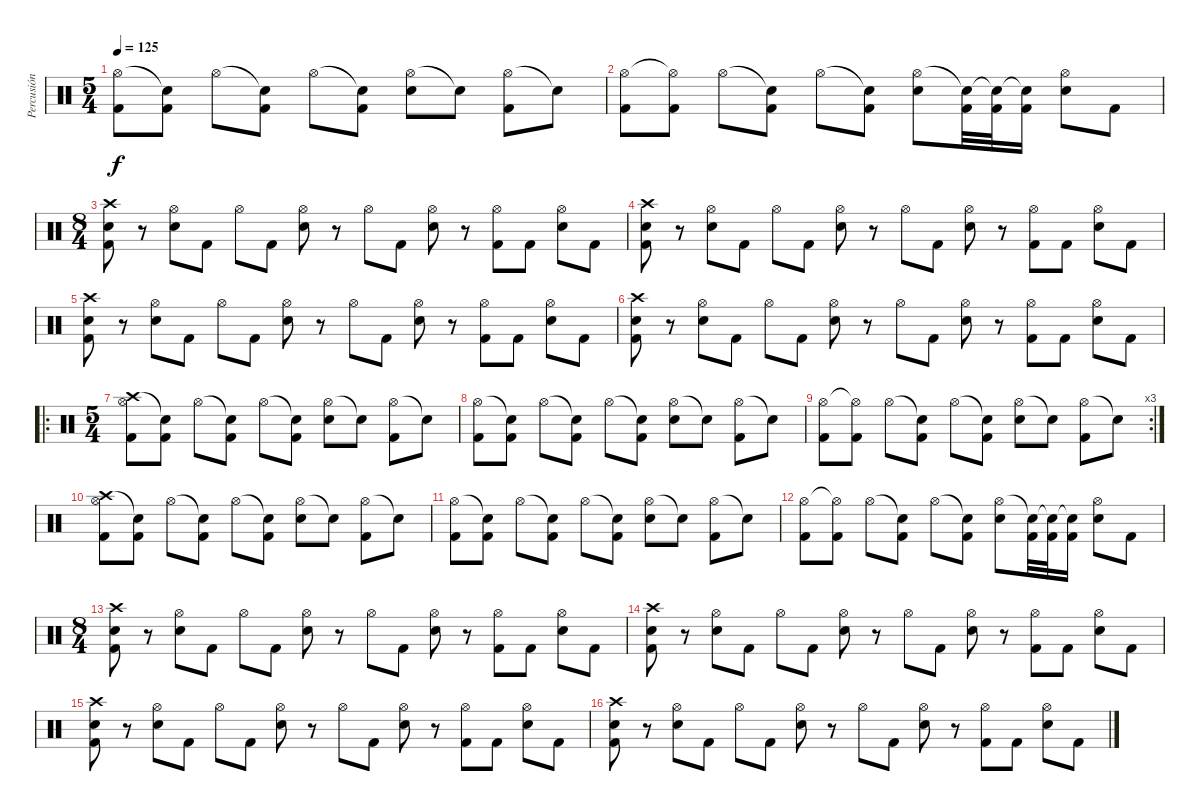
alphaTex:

\track ("Percusión" "Percusión") {instrument percussion}
\staff {score}
\articulation defaults
\ts (5 4)
\tempo 125
\clef neutral
\ks c
("Hi-Hat (open)" "Kick (hit) 2").8{dy f} ("Snare (hit)"{t} "Kick (hit) 2").8 "Hi-Hat (open)".8 ("Snare (hit)"{t} "Kick (hit) 2").8 "Hi-Hat (open)".8 ("Snare (hit)"{t} "Kick (hit) 2").8 ("Hi-Hat (open)" "Electric Snare (hit)").8 "Snare (hit)"{t}.8 ("Hi-Hat (open)" "Kick (hit) 2").8 "Snare (hit)"{t}.8 |
("Hi-Hat (open)" "Kick (hit) 2").8 ("Hi-Hat (open)"{t} "Kick (hit) 2").8 "Hi-Hat (open)".8 ("Snare (hit)"{t} "Kick (hit) 2").8 "Hi-Hat (open)".8 ("Snare (hit)"{t} "Kick (hit) 2").8 ("Hi-Hat (open)" "Electric Snare (hit)").8 ("Snare (hit)"{t} "Kick (hit) 2").32 ("Snare (hit)"{t} "Kick (hit) 2").32 ("Snare (hit)"{t} "Kick (hit) 2").16 ("Hi-Hat (open)" "Electric Snare (hit)").8 "Kick (hit) 2".8 |
\ts (8 4)
("Crash high (hit)" "Electric Snare (hit)" "Kick (hit) 2").8 r.8 ("Hi-Hat (open)" "Electric Snare (hit)").8 "Kick (hit) 2".8 "Hi-Hat (open)".8 "Kick (hit) 2".8 ("Hi-Hat (open)" "Electric Snare (hit)").8 r.8 "Hi-Hat (open)".8 "Kick (hit) 2".8 ("Hi-Hat (open)" "Electric Snare (hit)").8 r.8 ("Hi-Hat (open)" "Kick (hit) 2").8 "Kick (hit) 2".8 ("Hi-Hat (open)" "Electric Snare (hit)").8 "Kick (hit) 2".8 |
("Crash high (hit)" "Electric Snare (hit)" "Kick (hit) 2").8 r.8 ("Hi-Hat (open)" "Electric Snare (hit)").8 "Kick (hit) 2".8 "Hi-Hat (open)".8 "Kick (hit) 2".8 ("Hi-Hat (open)" "Electric Snare (hit)").8 r.8 "Hi-Hat (open)".8 "Kick (hit) 2".8 ("Hi-Hat (open)" "Electric Snare (hit)").8 r.8 ("Hi-Hat (open)" "Kick (hit) 2").8 "Kick (hit) 2".8 ("Hi-Hat (open)" "Electric Snare (hit)").8 "Kick (hit) 2".8 |
("Crash high (hit)" "Electric Snare (hit)" "Kick (hit) 2").8 r.8 ("Hi-Hat (open)" "Electric Snare (hit)").8 "Kick (hit) 2".8 "Hi-Hat (open)".8 "Kick (hit) 2".8 ("Hi-Hat (open)" "Electric Snare (hit)").8 r.8 "Hi-Hat (open)".8 "Kick (hit) 2".8 ("Hi-Hat (open)" "Electric Snare (hit)").8 r.8 ("Hi-Hat (open)" "Kick (hit) 2").8 "Kick (hit) 2".8 ("Hi-Hat (open)" "Electric Snare (hit)").8 "Kick (hit) 2".8 |
("Crash high (hit)" "Electric Snare (hit)" "Kick (hit) 2").8 r.8 ("Hi-Hat (open)" "Electric Snare (hit)").8 "Kick (hit) 2".8 "Hi-Hat (open)".8 "Kick (hit) 2".8 ("Hi-Hat (open)" "Electric Snare (hit)").8 r.8 "Hi-Hat (open)".8 "Kick (hit) 2".8 ("Hi-Hat (open)" "Electric Snare (hit)").8 r.8 ("Hi-Hat (open)" "Kick (hit) 2").8 "Kick (hit) 2".8 ("Hi-Hat (open)" "Electric Snare (hit)").8 "Kick (hit) 2".8 |
\ro
\ts (5 4)
("Crash high (hit)" "Hi-Hat (open)" "Kick (hit) 2").8 ("Snare (hit)"{t} "Kick (hit) 2").8 "Hi-Hat (open)".8 ("Snare (hit)"{t} "Kick (hit) 2").8 "Hi-Hat (open)".8 ("Snare (hit)"{t} "Kick (hit) 2").8 ("Hi-Hat (open)" "Electric Snare (hit)").8 "Snare (hit)"{t}.8 ("Hi-Hat (open)" "Kick (hit) 2").8 "Snare (hit)"{t}.8 |
("Hi-Hat (open)" "Kick (hit) 2").8 ("Snare (hit)"{t} "Kick (hit) 2").8 "Hi-Hat (open)".8 ("Snare (hit)"{t} "Kick (hit) 2").8 "Hi-Hat (open)".8 ("Snare (hit)"{t} "Kick (hit) 2").8 ("Hi-Hat (open)" "Electric Snare (hit)").8 "Snare (hit)"{t}.8 ("Hi-Hat (open)" "Kick (hit) 2").8 "Snare (hit)"{t}.8 |
\rc 3
("Hi-Hat (open)" "Kick (hit) 2").8 ("Hi-Hat (open)"{t} "Kick (hit) 2").8 "Hi-Hat (open)".8 ("Snare (hit)"{t} "Kick (hit) 2").8 "Hi-Hat (open)".8 ("Snare (hit)"{t} "Kick (hit) 2").8 ("Hi-Hat (open)" "Electric Snare (hit)").8 "Snare (hit)"{t}.8 ("Hi-Hat (open)" "Kick (hit) 2").8 "Snare (hit)"{t}.8 |
("Crash high (hit)" "Hi-Hat (open)" "Kick (hit) 2").8 ("Snare (hit)"{t} "Kick (hit) 2").8 "Hi-Hat (open)".8 ("Snare (hit)"{t} "Kick (hit) 2").8 "Hi-Hat (open)".8 ("Snare (hit)"{t} "Kick (hit) 2").8 ("Hi-Hat (open)" "Electric Snare (hit)").8 "Snare (hit)"{t}.8 ("Hi-Hat (open)" "Kick (hit) 2").8 "Snare (hit)"{t}.8 |
("Hi-Hat (open)" "Kick (hit) 2").8 ("Snare (hit)"{t} "Kick (hit) 2").8 "Hi-Hat (open)".8 ("Snare (hit)"{t} "Kick (hit) 2").8 "Hi-Hat (open)".8 ("Snare (hit)"{t} "Kick (hit) 2").8 ("Hi-Hat (open)" "Electric Snare (hit)").8 "Snare (hit)"{t}.8 ("Hi-Hat (open)" "Kick (hit) 2").8 "Snare (hit)"{t}.8 |
("Hi-Hat (open)" "Kick (hit) 2").8 ("Hi-Hat (open)"{t} "Kick (hit) 2").8 "Hi-Hat (open)".8 ("Snare (hit)"{t} "Kick (hit) 2").8 "Hi-Hat (open)".8 ("Snare (hit)"{t} "Kick (hit) 2").8 ("Hi-Hat (open)" "Electric Snare (hit)").8 ("Snare (hit)"{t} "Kick (hit) 2").32 ("Snare (hit)"{t} "Kick (hit) 2").32 ("Snare (hit)"{t} "Kick (hit) 2").16 ("Hi-Hat (open)" "Electric Snare (hit)").8 "Kick (hit) 2".8 |
\ts (8 4)
("Crash high (hit)" "Electric Snare (hit)" "Kick (hit) 2").8 r.8 ("Hi-Hat (open)" "Electric Snare (hit)").8 "Kick (hit) 2".8 "Hi-Hat (open)".8 "Kick (hit) 2".8 ("Hi-Hat (open)" "Electric Snare (hit)").8 r.8 "Hi-Hat (open)".8 "Kick (hit) 2".8 ("Hi-Hat (open)" "Electric Snare (hit)").8 r.8 ("Hi-Hat (open)" "Kick (hit) 2").8 "Kick (hit) 2".8 ("Hi-Hat (open)" "Electric Snare (hit)").8 "Kick (hit) 2".8 |
("Crash high (hit)" "Electric Snare (hit)" "Kick (hit) 2").8 r.8 ("Hi-Hat (open)" "Electric Snare (hit)").8 "Kick (hit) 2".8 "Hi-Hat (open)".8 "Kick (hit) 2".8 ("Hi-Hat (open)" "Electric Snare (hit)").8 r.8 "Hi-Hat (open)".8 "Kick (hit) 2".8 ("Hi-Hat (open)" "Electric Snare (hit)").8 r.8 ("Hi-Hat (open)" "Kick (hit) 2").8 "Kick (hit) 2".8 ("Hi-Hat (open)" "Electric Snare (hit)").8 "Kick (hit) 2".8 |
("Crash high (hit)" "Electric Snare (hit)" "Kick (hit) 2").8 r.8 ("Hi-Hat (open)" "Electric Snare (hit)").8 "Kick (hit) 2".8 "Hi-Hat (open)".8 "Kick (hit) 2".8 ("Hi-Hat (open)" "Electric Snare (hit)").8 r.8 "Hi-Hat (open)".8 "Kick (hit) 2".8 ("Hi-Hat (open)" "Electric Snare (hit)").8 r.8 ("Hi-Hat (open)" "Kick (hit) 2").8 "Kick (hit) 2".8 ("Hi-Hat (open)" "Electric Snare (hit)").8 "Kick (hit) 2".8 |
("Crash high (hit)" "Electric Snare (hit)" "Kick (hit) 2").8 r.8 ("Hi-Hat (open)" "Electric Snare (hit)").8 "Kick (hit) 2".8 "Hi-Hat (open)".8 "Kick (hit) 2".8 ("Hi-Hat (open)" "Electric Snare (hit)").8 r.8 "Hi-Hat (open)".8 "Kick (hit) 2".8 ("Hi-Hat (open)" "Electric Snare (hit)").8 r.8 ("Hi-Hat (open)" "Kick (hit) 2").8 "Kick (hit) 2".8 ("Hi-Hat (open)" "Electric Snare (hit)").8 "Kick (hit) 2".8
